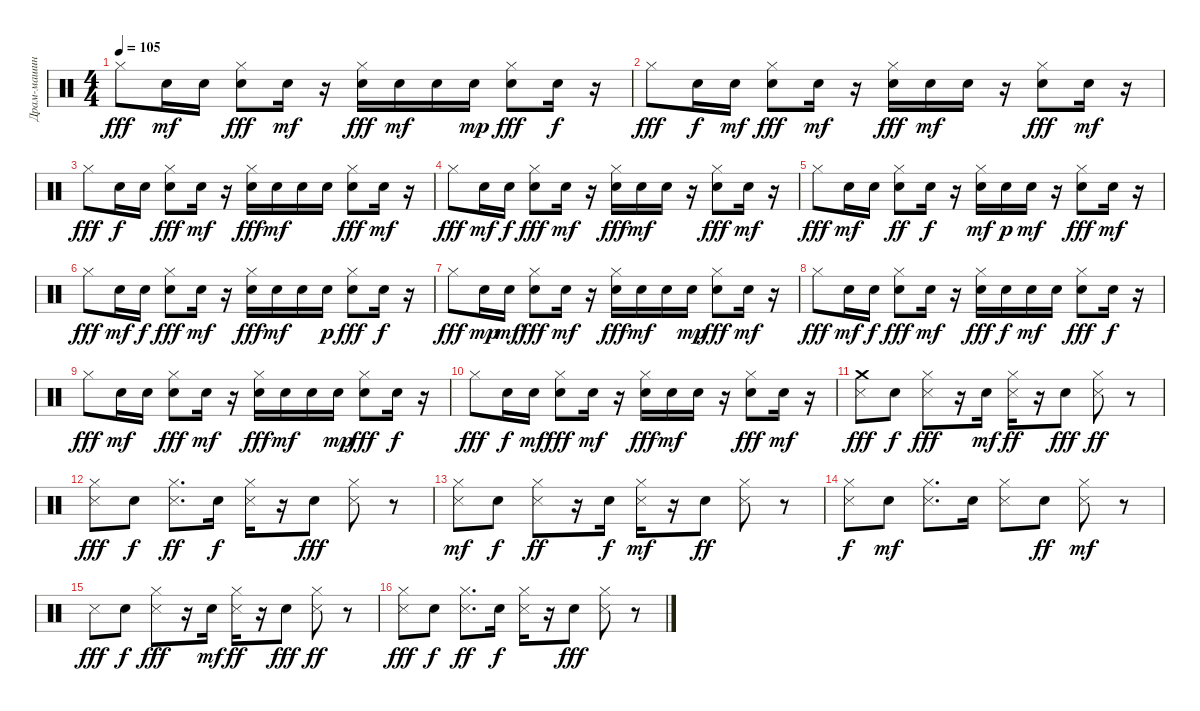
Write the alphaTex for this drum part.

\track ("Драм-машина" "Драм-машин") {instrument percussion}
\staff {score}
\articulation defaults
\ts (4 4)
\tempo 105
\clef neutral
\ks c "Hi-Hat (closed)".8{dy fff} "Snare (hit) 2".16{dy mf} "Snare (hit) 2".16
("Snare (hit) 2" "Hi-Hat (closed)").8{dy fff} "Snare (hit) 2".16{dy mf} r.16 ("Snare (hit) 2" "Hi-Hat (closed)").16{dy fff} "Snare (hit) 2".16{dy mf} "Snare (hit) 2".16 "Snare (hit) 2".16{dy mp} ("Snare (hit) 2" "Hi-Hat (closed)").8{dy fff} "Snare (hit) 2".16{dy f} r.16 |
"Hi-Hat (closed)".8{dy fff} "Snare (hit) 2".16{dy f} "Snare (hit) 2".16{dy mf} ("Snare (hit) 2" "Hi-Hat (closed)").8{dy fff} "Snare (hit) 2".16{dy mf} r.16 ("Snare (hit) 2" "Hi-Hat (closed)").16{dy fff} "Snare (hit) 2".16{dy mf} "Snare (hit) 2".16 r.16 ("Snare (hit) 2" "Hi-Hat (closed)").8{dy fff} "Snare (hit) 2".16{dy mf} r.16 |
"Hi-Hat (closed)".8{dy fff} "Snare (hit) 2".16{dy f} "Snare (hit) 2".16 ("Snare (hit) 2" "Hi-Hat (closed)").8{dy fff} "Snare (hit) 2".16{dy mf} r.16 ("Snare (hit) 2" "Hi-Hat (closed)").16{dy fff} "Snare (hit) 2".16{dy mf} "Snare (hit) 2".16 "Snare (hit) 2".16 ("Snare (hit) 2" "Hi-Hat (closed)").8{dy fff} "Snare (hit) 2".16{dy mf} r.16 |
"Hi-Hat (closed)".8{dy fff} "Snare (hit) 2".16{dy mf} "Snare (hit) 2".16{dy f} ("Snare (hit) 2" "Hi-Hat (closed)").8{dy fff} "Snare (hit) 2".16{dy mf} r.16 ("Snare (hit) 2" "Hi-Hat (closed)").16{dy fff} "Snare (hit) 2".16{dy mf} "Snare (hit) 2".16 r.16 ("Snare (hit) 2" "Hi-Hat (closed)").8{dy fff} "Snare (hit) 2".16{dy mf} r.16 |
"Hi-Hat (closed)".8{dy fff} "Snare (hit) 2".16{dy mf} "Snare (hit) 2".16 ("Snare (hit) 2" "Hi-Hat (closed)").8{dy ff} "Snare (hit) 2".16{dy f} r.16 ("Hi-Hat (closed)" "Snare (hit) 2").16{dy mf} "Snare (hit) 2".16{dy p} "Snare (hit) 2".16{dy mf} r.16 ("Snare (hit) 2" "Hi-Hat (closed)").8{dy fff} "Snare (hit) 2".16{dy mf} r.16 |
"Hi-Hat (closed)".8{dy fff} "Snare (hit) 2".16{dy mf} "Snare (hit) 2".16{dy f} ("Snare (hit) 2" "Hi-Hat (closed)").8{dy fff} "Snare (hit) 2".16{dy mf} r.16 ("Snare (hit) 2" "Hi-Hat (closed)").16{dy fff} "Snare (hit) 2".16{dy mf} "Snare (hit) 2".16 "Snare (hit) 2".16{dy p} ("Snare (hit) 2" "Hi-Hat (closed)").8{dy fff} "Snare (hit) 2".16{dy f} r.16 |
"Hi-Hat (closed)".8{dy fff} "Snare (hit) 2".16{dy mp} "Snare (hit) 2".16{dy mf} ("Snare (hit) 2" "Hi-Hat (closed)").8{dy fff} "Snare (hit) 2".16{dy mf} r.16 ("Snare (hit) 2" "Hi-Hat (closed)").16{dy fff} "Snare (hit) 2".16{dy mf} "Snare (hit) 2".16 "Snare (hit) 2".16{dy mp} ("Snare (hit) 2" "Hi-Hat (closed)").8{dy fff} "Snare (hit) 2".16{dy mf} r.16 |
"Hi-Hat (closed)".8{dy fff} "Snare (hit) 2".16{dy mf} "Snare (hit) 2".16{dy f} ("Snare (hit) 2" "Hi-Hat (closed)").8{dy fff} "Snare (hit) 2".16{dy mf} r.16 ("Snare (hit) 2" "Hi-Hat (closed)").16{dy fff} "Snare (hit) 2".16{dy f} "Snare (hit) 2".16{dy mf} "Snare (hit) 2".16 ("Snare (hit) 2" "Hi-Hat (closed)").8{dy fff} "Snare (hit) 2".16{dy f} r.16 |
"Hi-Hat (closed)".8{dy fff} "Snare (hit) 2".16{dy mf} "Snare (hit) 2".16 ("Snare (hit) 2" "Hi-Hat (closed)").8{dy fff} "Snare (hit) 2".16{dy mf} r.16 ("Snare (hit) 2" "Hi-Hat (closed)").16{dy fff} "Snare (hit) 2".16{dy mf} "Snare (hit) 2".16 "Snare (hit) 2".16{dy mp} ("Snare (hit) 2" "Hi-Hat (closed)").8{dy fff} "Snare (hit) 2".16{dy f} r.16 |
"Hi-Hat (closed)".8{dy fff} "Snare (hit) 2".16{dy f} "Snare (hit) 2".16{dy mf} ("Snare (hit) 2" "Hi-Hat (closed)").8{dy fff} "Snare (hit) 2".16{dy mf} r.16 ("Snare (hit) 2" "Hi-Hat (closed)").16{dy fff} "Snare (hit) 2".16{dy mf} "Snare (hit) 2".16 r.16 ("Snare (hit) 2" "Hi-Hat (closed)").8{dy fff} "Snare (hit) 2".16{dy mf} r.16 |
("Metronome (hit)" "Crash medium (hit)").8{dy fff} "Snare (hit) 2".8{dy f} ("Metronome (hit)" "Hi-Hat (closed)").8{dy fff} r.16 "Snare (hit) 2".16{dy mf} ("Metronome (hit)" "Hi-Hat (closed)").16{dy ff} r.16 "Snare (hit) 2".8{dy fff} ("Metronome (hit)" "Hi-Hat (closed)").8{dy ff} r.8 |
("Metronome (hit)" "Hi-Hat (closed)").8{dy fff} "Snare (hit) 2".8{dy f} ("Metronome (hit)" "Hi-Hat (closed)").8{d dy ff} "Snare (hit) 2".16{dy f} ("Metronome (hit)" "Hi-Hat (closed)").16 r.16 "Snare (hit) 2".8{dy fff} ("Metronome (hit)" "Hi-Hat (closed)").8 r.8 |
("Metronome (hit)" "Hi-Hat (closed)").8{dy mf} "Snare (hit) 2".8{dy f} ("Metronome (hit)" "Hi-Hat (closed)").8{dy ff} r.16 "Snare (hit) 2".16{dy f} ("Metronome (hit)" "Hi-Hat (closed)").16{dy mf} r.16 "Snare (hit) 2".8{dy ff} ("Metronome (hit)" "Hi-Hat (closed)").8 r.8 |
("Metronome (hit)" "Hi-Hat (closed)").8{dy f} "Snare (hit) 2".8{dy mf} ("Metronome (hit)" "Hi-Hat (closed)").8{d} "Snare (hit) 2".16 ("Metronome (hit)" "Hi-Hat (closed)").8 "Snare (hit) 2".8{dy ff} ("Metronome (hit)" "Hi-Hat (closed)").8{dy mf} r.8 |
"Metronome (hit)".8{dy fff} "Snare (hit) 2".8{dy f} ("Metronome (hit)" "Hi-Hat (closed)").8{dy fff} r.16 "Snare (hit) 2".16{dy mf} ("Metronome (hit)" "Hi-Hat (closed)").16{dy ff} r.16 "Snare (hit) 2".8{dy fff} ("Metronome (hit)" "Hi-Hat (closed)").8{dy ff} r.8 |
("Metronome (hit)" "Hi-Hat (closed)").8{dy fff} "Snare (hit) 2".8{dy f} ("Metronome (hit)" "Hi-Hat (closed)").8{d dy ff} "Snare (hit) 2".16{dy f} ("Metronome (hit)" "Hi-Hat (closed)").16 r.16 "Snare (hit) 2".8{dy fff} ("Metronome (hit)" "Hi-Hat (closed)").8 r.8
